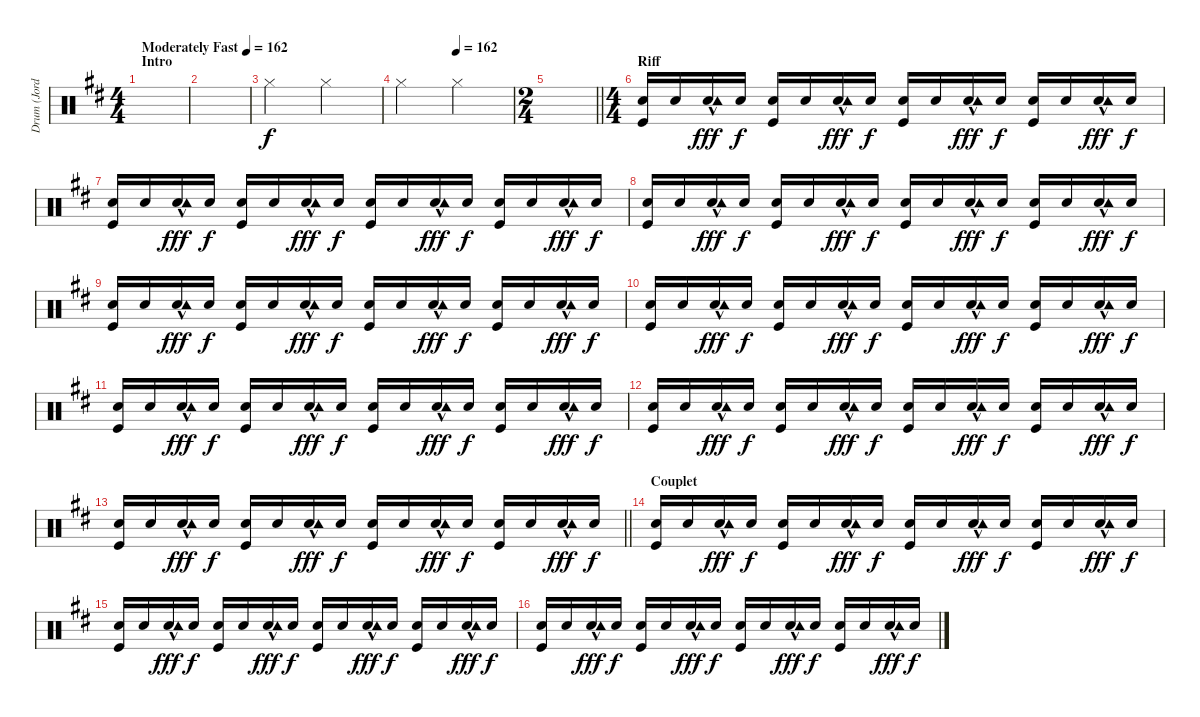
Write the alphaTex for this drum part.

\track ("Drum (Jordan)" "Drum (Jord") {instrument percussion}
\staff {score}
\articulation defaults
\ts (4 4)
\section ("" "Intro")
\tempo (162 "Moderately Fast")
\tempo 90
\tempo (162 "Moderately Fast")
\clef neutral
\ks d
|
|
"Hi-Hat (closed)".2 "Hi-Hat (closed)".2 |
\tempo (162 0.5)
"Hi-Hat (closed)".2 "Hi-Hat (closed)".2 |
\ts (2 4)
\barLineRight lightlight
|
\ts (4 4)
\section ("" "Riff")
("Snare (hit) 2" "Kick (hit)").16 "Snare (hit) 2".16 ("Snare (hit) 2"{hac} "Tambourine (hit)").16{dy fff} "Snare (hit) 2".16{dy f} ("Snare (hit) 2" "Kick (hit)").16 "Snare (hit) 2".16 ("Snare (hit) 2"{hac} "Tambourine (hit)").16{dy fff} "Snare (hit) 2".16{dy f} ("Snare (hit) 2" "Kick (hit)").16 "Snare (hit) 2".16 ("Snare (hit) 2"{hac} "Tambourine (hit)").16{dy fff} "Snare (hit) 2".16{dy f} ("Snare (hit) 2" "Kick (hit)").16 "Snare (hit) 2".16 ("Snare (hit) 2"{hac} "Tambourine (hit)").16{dy fff} "Snare (hit) 2".16{dy f} |
("Snare (hit) 2" "Kick (hit)").16 "Snare (hit) 2".16 ("Snare (hit) 2"{hac} "Tambourine (hit)").16{dy fff} "Snare (hit) 2".16{dy f} ("Snare (hit) 2" "Kick (hit)").16 "Snare (hit) 2".16 ("Snare (hit) 2"{hac} "Tambourine (hit)").16{dy fff} "Snare (hit) 2".16{dy f} ("Snare (hit) 2" "Kick (hit)").16 "Snare (hit) 2".16 ("Snare (hit) 2"{hac} "Tambourine (hit)").16{dy fff} "Snare (hit) 2".16{dy f} ("Snare (hit) 2" "Kick (hit)").16 "Snare (hit) 2".16 ("Snare (hit) 2"{hac} "Tambourine (hit)").16{dy fff} "Snare (hit) 2".16{dy f} |
("Snare (hit) 2" "Kick (hit)").16 "Snare (hit) 2".16 ("Snare (hit) 2"{hac} "Tambourine (hit)").16{dy fff} "Snare (hit) 2".16{dy f} ("Snare (hit) 2" "Kick (hit)").16 "Snare (hit) 2".16 ("Snare (hit) 2"{hac} "Tambourine (hit)").16{dy fff} "Snare (hit) 2".16{dy f} ("Snare (hit) 2" "Kick (hit)").16 "Snare (hit) 2".16 ("Snare (hit) 2"{hac} "Tambourine (hit)").16{dy fff} "Snare (hit) 2".16{dy f} ("Snare (hit) 2" "Kick (hit)").16 "Snare (hit) 2".16 ("Snare (hit) 2"{hac} "Tambourine (hit)").16{dy fff} "Snare (hit) 2".16{dy f} |
("Snare (hit) 2" "Kick (hit)").16 "Snare (hit) 2".16 ("Snare (hit) 2"{hac} "Tambourine (hit)").16{dy fff} "Snare (hit) 2".16{dy f} ("Snare (hit) 2" "Kick (hit)").16 "Snare (hit) 2".16 ("Snare (hit) 2"{hac} "Tambourine (hit)").16{dy fff} "Snare (hit) 2".16{dy f} ("Snare (hit) 2" "Kick (hit)").16 "Snare (hit) 2".16 ("Snare (hit) 2"{hac} "Tambourine (hit)").16{dy fff} "Snare (hit) 2".16{dy f} ("Snare (hit) 2" "Kick (hit)").16 "Snare (hit) 2".16 ("Snare (hit) 2"{hac} "Tambourine (hit)").16{dy fff} "Snare (hit) 2".16{dy f} |
("Snare (hit) 2" "Kick (hit)").16 "Snare (hit) 2".16 ("Snare (hit) 2"{hac} "Tambourine (hit)").16{dy fff} "Snare (hit) 2".16{dy f} ("Snare (hit) 2" "Kick (hit)").16 "Snare (hit) 2".16 ("Snare (hit) 2"{hac} "Tambourine (hit)").16{dy fff} "Snare (hit) 2".16{dy f} ("Snare (hit) 2" "Kick (hit)").16 "Snare (hit) 2".16 ("Snare (hit) 2"{hac} "Tambourine (hit)").16{dy fff} "Snare (hit) 2".16{dy f} ("Snare (hit) 2" "Kick (hit)").16 "Snare (hit) 2".16 ("Snare (hit) 2"{hac} "Tambourine (hit)").16{dy fff} "Snare (hit) 2".16{dy f} |
("Snare (hit) 2" "Kick (hit)").16 "Snare (hit) 2".16 ("Snare (hit) 2"{hac} "Tambourine (hit)").16{dy fff} "Snare (hit) 2".16{dy f} ("Snare (hit) 2" "Kick (hit)").16 "Snare (hit) 2".16 ("Snare (hit) 2"{hac} "Tambourine (hit)").16{dy fff} "Snare (hit) 2".16{dy f} ("Snare (hit) 2" "Kick (hit)").16 "Snare (hit) 2".16 ("Snare (hit) 2"{hac} "Tambourine (hit)").16{dy fff} "Snare (hit) 2".16{dy f} ("Snare (hit) 2" "Kick (hit)").16 "Snare (hit) 2".16 ("Snare (hit) 2"{hac} "Tambourine (hit)").16{dy fff} "Snare (hit) 2".16{dy f} |
("Snare (hit) 2" "Kick (hit)").16 "Snare (hit) 2".16 ("Snare (hit) 2"{hac} "Tambourine (hit)").16{dy fff} "Snare (hit) 2".16{dy f} ("Snare (hit) 2" "Kick (hit)").16 "Snare (hit) 2".16 ("Snare (hit) 2"{hac} "Tambourine (hit)").16{dy fff} "Snare (hit) 2".16{dy f} ("Snare (hit) 2" "Kick (hit)").16 "Snare (hit) 2".16 ("Snare (hit) 2"{hac} "Tambourine (hit)").16{dy fff} "Snare (hit) 2".16{dy f} ("Snare (hit) 2" "Kick (hit)").16 "Snare (hit) 2".16 ("Snare (hit) 2"{hac} "Tambourine (hit)").16{dy fff} "Snare (hit) 2".16{dy f} |
\barLineRight lightlight
("Snare (hit) 2" "Kick (hit)").16 "Snare (hit) 2".16 ("Snare (hit) 2"{hac} "Tambourine (hit)").16{dy fff} "Snare (hit) 2".16{dy f} ("Snare (hit) 2" "Kick (hit)").16 "Snare (hit) 2".16 ("Snare (hit) 2"{hac} "Tambourine (hit)").16{dy fff} "Snare (hit) 2".16{dy f} ("Snare (hit) 2" "Kick (hit)").16 "Snare (hit) 2".16 ("Snare (hit) 2"{hac} "Tambourine (hit)").16{dy fff} "Snare (hit) 2".16{dy f} ("Snare (hit) 2" "Kick (hit)").16 "Snare (hit) 2".16 ("Snare (hit) 2"{hac} "Tambourine (hit)").16{dy fff} "Snare (hit) 2".16{dy f} |
\section ("" "Couplet")
("Snare (hit) 2" "Kick (hit)").16 "Snare (hit) 2".16 ("Snare (hit) 2"{hac} "Tambourine (hit)").16{dy fff} "Snare (hit) 2".16{dy f} ("Snare (hit) 2" "Kick (hit)").16 "Snare (hit) 2".16 ("Snare (hit) 2"{hac} "Tambourine (hit)").16{dy fff} "Snare (hit) 2".16{dy f} ("Snare (hit) 2" "Kick (hit)").16 "Snare (hit) 2".16 ("Snare (hit) 2"{hac} "Tambourine (hit)").16{dy fff} "Snare (hit) 2".16{dy f} ("Snare (hit) 2" "Kick (hit)").16 "Snare (hit) 2".16 ("Snare (hit) 2"{hac} "Tambourine (hit)").16{dy fff} "Snare (hit) 2".16{dy f} |
("Snare (hit) 2" "Kick (hit)").16 "Snare (hit) 2".16 ("Snare (hit) 2"{hac} "Tambourine (hit)").16{dy fff} "Snare (hit) 2".16{dy f} ("Snare (hit) 2" "Kick (hit)").16 "Snare (hit) 2".16 ("Snare (hit) 2"{hac} "Tambourine (hit)").16{dy fff} "Snare (hit) 2".16{dy f} ("Snare (hit) 2" "Kick (hit)").16 "Snare (hit) 2".16 ("Snare (hit) 2"{hac} "Tambourine (hit)").16{dy fff} "Snare (hit) 2".16{dy f} ("Snare (hit) 2" "Kick (hit)").16 "Snare (hit) 2".16 ("Snare (hit) 2"{hac} "Tambourine (hit)").16{dy fff} "Snare (hit) 2".16{dy f} |
("Snare (hit) 2" "Kick (hit)").16 "Snare (hit) 2".16 ("Snare (hit) 2"{hac} "Tambourine (hit)").16{dy fff} "Snare (hit) 2".16{dy f} ("Snare (hit) 2" "Kick (hit)").16 "Snare (hit) 2".16 ("Snare (hit) 2"{hac} "Tambourine (hit)").16{dy fff} "Snare (hit) 2".16{dy f} ("Snare (hit) 2" "Kick (hit)").16 "Snare (hit) 2".16 ("Snare (hit) 2"{hac} "Tambourine (hit)").16{dy fff} "Snare (hit) 2".16{dy f} ("Snare (hit) 2" "Kick (hit)").16 "Snare (hit) 2".16 ("Snare (hit) 2"{hac} "Tambourine (hit)").16{dy fff} "Snare (hit) 2".16{dy f}
